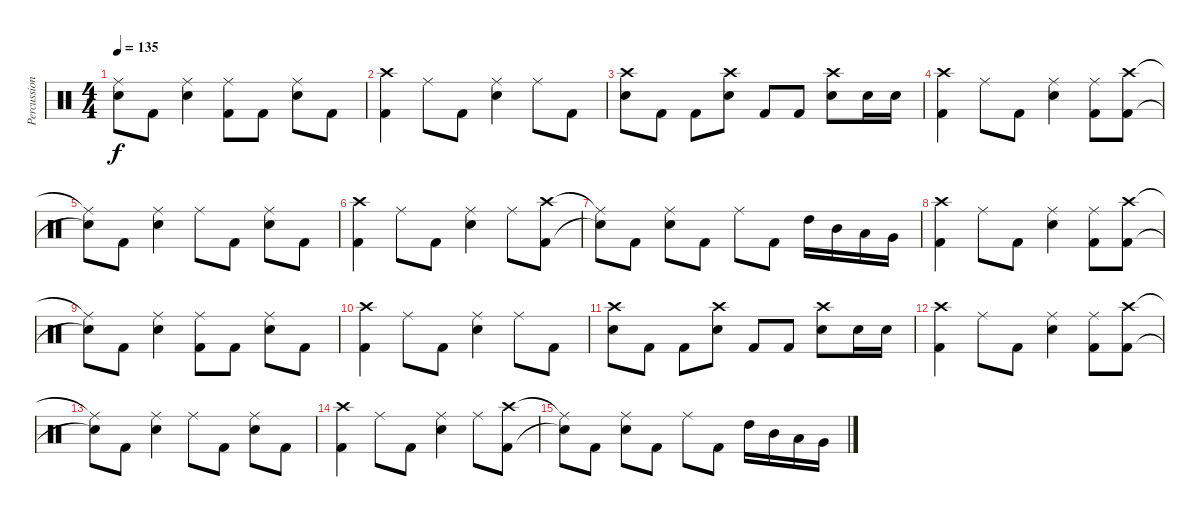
\track ("Percussion" "Percussion") {instrument percussion}
\staff {score}
\articulation defaults
\ts (4 4)
\tempo 135
\clef neutral
\ks c
("Ride (middle)"{t} "Snare (hit)"{t}).8{dy f} "Kick (hit) 2".8 ("Ride (middle)" "Electric Snare (hit)").4 ("Ride (middle)" "Kick (hit) 2").8 "Kick (hit) 2".8 ("Ride (middle)" "Electric Snare (hit)").8 "Kick (hit) 2".8 |
("Crash high (hit)" "Kick (hit) 2").4 "Ride (middle)".8 "Kick (hit) 2".8 ("Ride (middle)" "Electric Snare (hit)").4 "Ride (middle)".8 "Kick (hit) 2".8 |
("Crash high (hit)" "Electric Snare (hit)").8 "Kick (hit) 2".8 "Kick (hit) 2".8 ("Crash high (hit)" "Electric Snare (hit)").8 "Kick (hit) 2".8 "Kick (hit) 2".8 ("Crash high (hit)" "Electric Snare (hit)").8 "Electric Snare (hit)".16 "Electric Snare (hit)".16 |
("Crash high (hit)" "Kick (hit) 2").4 "Ride (middle)".8 "Kick (hit) 2".8 ("Ride (middle)" "Electric Snare (hit)").4 ("Ride (middle)" "Kick (hit) 2").8 ("Crash high (hit)" "Kick (hit) 2").8 |
("Ride (middle)"{t} "Snare (hit)"{t}).8 "Kick (hit) 2".8 ("Ride (middle)" "Electric Snare (hit)").4 "Ride (middle)".8 "Kick (hit) 2".8 ("Ride (middle)" "Electric Snare (hit)").8 "Kick (hit) 2".8 |
("Crash high (hit)" "Kick (hit) 2").4 "Ride (middle)".8 "Kick (hit) 2".8 ("Ride (middle)" "Electric Snare (hit)").4 "Ride (middle)".8 ("Crash high (hit)" "Kick (hit) 2").8 |
("Ride (middle)"{t} "Snare (hit)"{t}).8 "Kick (hit) 2".8 ("Ride (middle)" "Electric Snare (hit)").8 "Kick (hit) 2".8 "Ride (middle)".8 "Kick (hit) 2".8 "High Tom (hit)".16 "Mid Tom (hit)".16 "Low Tom (hit)".16 "Very Low Tom (hit)".16 |
("Crash high (hit)" "Kick (hit) 2").4 "Ride (middle)".8 "Kick (hit) 2".8 ("Ride (middle)" "Electric Snare (hit)").4 ("Ride (middle)" "Kick (hit) 2").8 ("Crash high (hit)" "Kick (hit) 2").8 |
("Ride (middle)"{t} "Snare (hit)"{t}).8 "Kick (hit) 2".8 ("Ride (middle)" "Electric Snare (hit)").4 ("Ride (middle)" "Kick (hit) 2").8 "Kick (hit) 2".8 ("Ride (middle)" "Electric Snare (hit)").8 "Kick (hit) 2".8 |
("Crash high (hit)" "Kick (hit) 2").4 "Ride (middle)".8 "Kick (hit) 2".8 ("Ride (middle)" "Electric Snare (hit)").4 "Ride (middle)".8 "Kick (hit) 2".8 |
("Crash high (hit)" "Electric Snare (hit)").8 "Kick (hit) 2".8 "Kick (hit) 2".8 ("Crash high (hit)" "Electric Snare (hit)").8 "Kick (hit) 2".8 "Kick (hit) 2".8 ("Crash high (hit)" "Electric Snare (hit)").8 "Electric Snare (hit)".16 "Electric Snare (hit)".16 |
("Crash high (hit)" "Kick (hit) 2").4 "Ride (middle)".8 "Kick (hit) 2".8 ("Ride (middle)" "Electric Snare (hit)").4 ("Ride (middle)" "Kick (hit) 2").8 ("Crash high (hit)" "Kick (hit) 2").8 |
("Ride (middle)"{t} "Snare (hit)"{t}).8 "Kick (hit) 2".8 ("Ride (middle)" "Electric Snare (hit)").4 "Ride (middle)".8 "Kick (hit) 2".8 ("Ride (middle)" "Electric Snare (hit)").8 "Kick (hit) 2".8 |
("Crash high (hit)" "Kick (hit) 2").4 "Ride (middle)".8 "Kick (hit) 2".8 ("Ride (middle)" "Electric Snare (hit)").4 "Ride (middle)".8 ("Crash high (hit)" "Kick (hit) 2").8 |
("Ride (middle)"{t} "Snare (hit)"{t}).8 "Kick (hit) 2".8 ("Ride (middle)" "Electric Snare (hit)").8 "Kick (hit) 2".8 "Ride (middle)".8 "Kick (hit) 2".8 "High Tom (hit)".16 "Mid Tom (hit)".16 "Low Tom (hit)".16 "Very Low Tom (hit)".16
